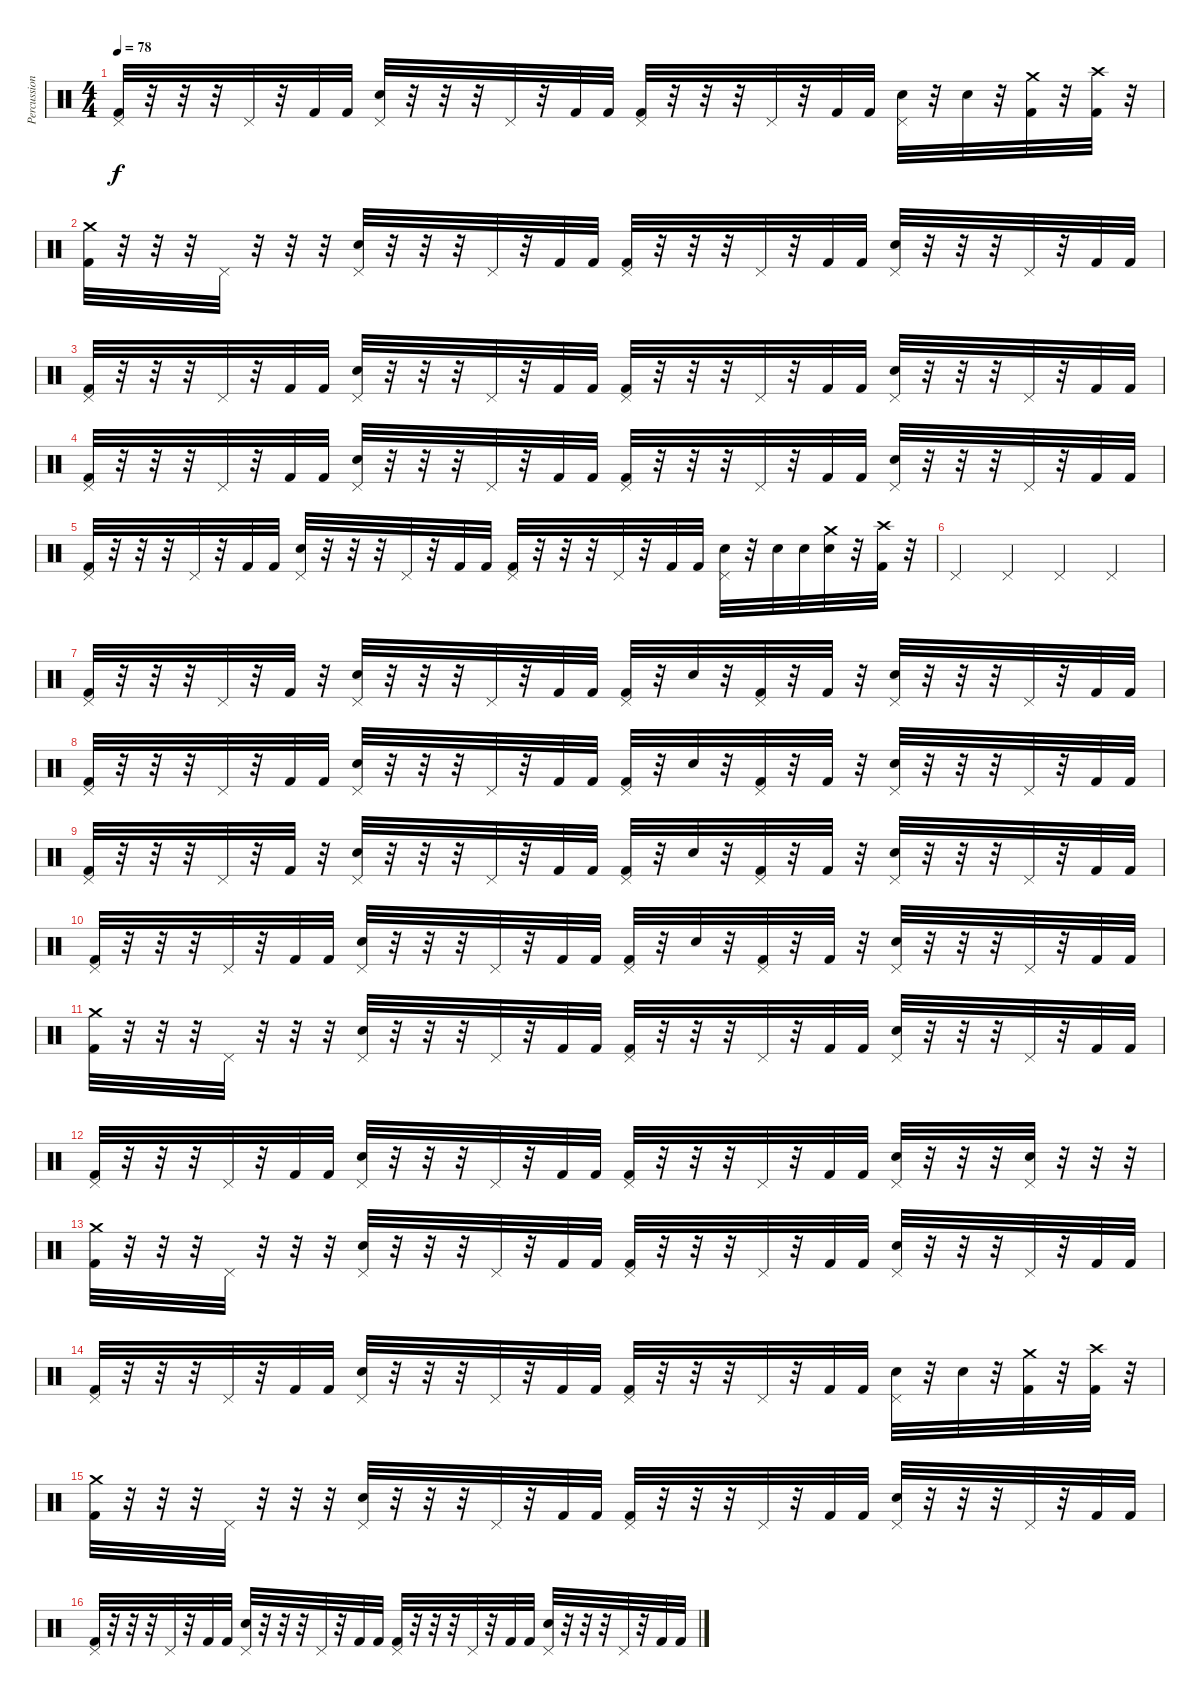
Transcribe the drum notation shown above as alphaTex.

\track ("Percussion" "Percussion") {instrument percussion}
\staff {score}
\articulation defaults
\ts (4 4)
\tempo 78
\clef neutral
\ks c
("Pedal Hi-Hat (hit)" "Kick (hit) 2").32{dy f} r.32 r.32 r.32 "Pedal Hi-Hat (hit)".32 r.32 "Kick (hit) 2".32 "Kick (hit) 2".32 ("Pedal Hi-Hat (hit)" "Electric Snare (hit)").32 r.32 r.32 r.32 "Pedal Hi-Hat (hit)".32 r.32 "Kick (hit) 2".32 "Kick (hit) 2".32 ("Pedal Hi-Hat (hit)" "Kick (hit) 2").32 r.32 r.32 r.32 "Pedal Hi-Hat (hit)".32 r.32 "Kick (hit) 2".32 "Kick (hit) 2".32 ("Pedal Hi-Hat (hit)" "Electric Snare (hit)").32 r.32 "Electric Snare (hit)".32 r.32 ("Crash medium (hit)" "Kick (hit) 2").32 r.32 ("Crash high (hit)" "Kick (hit) 2").32 r.32 |
("Crash medium (hit)" "Kick (hit) 2").32 r.32 r.32 r.32 "Pedal Hi-Hat (hit)".32 r.32 r.32 r.32 ("Pedal Hi-Hat (hit)" "Electric Snare (hit)").32 r.32 r.32 r.32 "Pedal Hi-Hat (hit)".32 r.32 "Kick (hit) 2".32 "Kick (hit) 2".32 ("Pedal Hi-Hat (hit)" "Kick (hit) 2").32 r.32 r.32 r.32 "Pedal Hi-Hat (hit)".32 r.32 "Kick (hit) 2".32 "Kick (hit) 2".32 ("Pedal Hi-Hat (hit)" "Electric Snare (hit)").32 r.32 r.32 r.32 "Pedal Hi-Hat (hit)".32 r.32 "Kick (hit) 2".32 "Kick (hit) 2".32 |
("Pedal Hi-Hat (hit)" "Kick (hit) 2").32 r.32 r.32 r.32 "Pedal Hi-Hat (hit)".32 r.32 "Kick (hit) 2".32 "Kick (hit) 2".32 ("Pedal Hi-Hat (hit)" "Electric Snare (hit)").32 r.32 r.32 r.32 "Pedal Hi-Hat (hit)".32 r.32 "Kick (hit) 2".32 "Kick (hit) 2".32 ("Pedal Hi-Hat (hit)" "Kick (hit) 2").32 r.32 r.32 r.32 "Pedal Hi-Hat (hit)".32 r.32 "Kick (hit) 2".32 "Kick (hit) 2".32 ("Pedal Hi-Hat (hit)" "Electric Snare (hit)").32 r.32 r.32 r.32 "Pedal Hi-Hat (hit)".32 r.32 "Kick (hit) 2".32 "Kick (hit) 2".32 |
("Pedal Hi-Hat (hit)" "Kick (hit) 2").32 r.32 r.32 r.32 "Pedal Hi-Hat (hit)".32 r.32 "Kick (hit) 2".32 "Kick (hit) 2".32 ("Pedal Hi-Hat (hit)" "Electric Snare (hit)").32 r.32 r.32 r.32 "Pedal Hi-Hat (hit)".32 r.32 "Kick (hit) 2".32 "Kick (hit) 2".32 ("Pedal Hi-Hat (hit)" "Kick (hit) 2").32 r.32 r.32 r.32 "Pedal Hi-Hat (hit)".32 r.32 "Kick (hit) 2".32 "Kick (hit) 2".32 ("Pedal Hi-Hat (hit)" "Electric Snare (hit)").32 r.32 r.32 r.32 "Pedal Hi-Hat (hit)".32 r.32 "Kick (hit) 2".32 "Kick (hit) 2".32 |
("Pedal Hi-Hat (hit)" "Kick (hit) 2").32 r.32 r.32 r.32 "Pedal Hi-Hat (hit)".32 r.32 "Kick (hit) 2".32 "Kick (hit) 2".32 ("Pedal Hi-Hat (hit)" "Electric Snare (hit)").32 r.32 r.32 r.32 "Pedal Hi-Hat (hit)".32 r.32 "Kick (hit) 2".32 "Kick (hit) 2".32 ("Pedal Hi-Hat (hit)" "Kick (hit) 2").32 r.32 r.32 r.32 "Pedal Hi-Hat (hit)".32 r.32 "Kick (hit) 2".32 "Kick (hit) 2".32 ("Pedal Hi-Hat (hit)" "Electric Snare (hit)").32 r.32 "Electric Snare (hit)".32 "Electric Snare (hit)".32 ("Crash medium (hit)" "Electric Snare (hit)").32 r.32 ("Crash high (hit)" "Kick (hit) 2").32 r.32 |
"Pedal Hi-Hat (hit)".4 "Pedal Hi-Hat (hit)".4 "Pedal Hi-Hat (hit)".4 "Pedal Hi-Hat (hit)".4 |
("Pedal Hi-Hat (hit)" "Kick (hit) 2").32 r.32 r.32 r.32 "Pedal Hi-Hat (hit)".32 r.32 "Kick (hit) 2".32 r.32 ("Pedal Hi-Hat (hit)" "Electric Snare (hit)").32 r.32 r.32 r.32 "Pedal Hi-Hat (hit)".32 r.32 "Kick (hit) 2".32 "Kick (hit) 2".32 ("Pedal Hi-Hat (hit)" "Kick (hit) 2").32 r.32 "Electric Snare (hit)".32 r.32 ("Pedal Hi-Hat (hit)" "Kick (hit) 2").32 r.32 "Kick (hit) 2".32 r.32 ("Pedal Hi-Hat (hit)" "Electric Snare (hit)").32 r.32 r.32 r.32 "Pedal Hi-Hat (hit)".32 r.32 "Kick (hit) 2".32 "Kick (hit) 2".32 |
("Pedal Hi-Hat (hit)" "Kick (hit) 2").32 r.32 r.32 r.32 "Pedal Hi-Hat (hit)".32 r.32 "Kick (hit) 2".32 "Kick (hit) 2".32 ("Pedal Hi-Hat (hit)" "Electric Snare (hit)").32 r.32 r.32 r.32 "Pedal Hi-Hat (hit)".32 r.32 "Kick (hit) 2".32 "Kick (hit) 2".32 ("Pedal Hi-Hat (hit)" "Kick (hit) 2").32 r.32 "Electric Snare (hit)".32 r.32 ("Pedal Hi-Hat (hit)" "Kick (hit) 2").32 r.32 "Kick (hit) 2".32 r.32 ("Pedal Hi-Hat (hit)" "Electric Snare (hit)").32 r.32 r.32 r.32 "Pedal Hi-Hat (hit)".32 r.32 "Kick (hit) 2".32 "Kick (hit) 2".32 |
("Pedal Hi-Hat (hit)" "Kick (hit) 2").32 r.32 r.32 r.32 "Pedal Hi-Hat (hit)".32 r.32 "Kick (hit) 2".32 r.32 ("Pedal Hi-Hat (hit)" "Electric Snare (hit)").32 r.32 r.32 r.32 "Pedal Hi-Hat (hit)".32 r.32 "Kick (hit) 2".32 "Kick (hit) 2".32 ("Pedal Hi-Hat (hit)" "Kick (hit) 2").32 r.32 "Electric Snare (hit)".32 r.32 ("Pedal Hi-Hat (hit)" "Kick (hit) 2").32 r.32 "Kick (hit) 2".32 r.32 ("Pedal Hi-Hat (hit)" "Electric Snare (hit)").32 r.32 r.32 r.32 "Pedal Hi-Hat (hit)".32 r.32 "Kick (hit) 2".32 "Kick (hit) 2".32 |
("Pedal Hi-Hat (hit)" "Kick (hit) 2").32 r.32 r.32 r.32 "Pedal Hi-Hat (hit)".32 r.32 "Kick (hit) 2".32 "Kick (hit) 2".32 ("Pedal Hi-Hat (hit)" "Electric Snare (hit)").32 r.32 r.32 r.32 "Pedal Hi-Hat (hit)".32 r.32 "Kick (hit) 2".32 "Kick (hit) 2".32 ("Pedal Hi-Hat (hit)" "Kick (hit) 2").32 r.32 "Electric Snare (hit)".32 r.32 ("Pedal Hi-Hat (hit)" "Kick (hit) 2").32 r.32 "Kick (hit) 2".32 r.32 ("Pedal Hi-Hat (hit)" "Electric Snare (hit)").32 r.32 r.32 r.32 "Pedal Hi-Hat (hit)".32 r.32 "Kick (hit) 2".32 "Kick (hit) 2".32 |
("Crash medium (hit)" "Kick (hit) 2").32 r.32 r.32 r.32 "Pedal Hi-Hat (hit)".32 r.32 r.32 r.32 ("Pedal Hi-Hat (hit)" "Electric Snare (hit)").32 r.32 r.32 r.32 "Pedal Hi-Hat (hit)".32 r.32 "Kick (hit) 2".32 "Kick (hit) 2".32 ("Pedal Hi-Hat (hit)" "Kick (hit) 2").32 r.32 r.32 r.32 "Pedal Hi-Hat (hit)".32 r.32 "Kick (hit) 2".32 "Kick (hit) 2".32 ("Pedal Hi-Hat (hit)" "Electric Snare (hit)").32 r.32 r.32 r.32 "Pedal Hi-Hat (hit)".32 r.32 "Kick (hit) 2".32 "Kick (hit) 2".32 |
("Pedal Hi-Hat (hit)" "Kick (hit) 2").32 r.32 r.32 r.32 "Pedal Hi-Hat (hit)".32 r.32 "Kick (hit) 2".32 "Kick (hit) 2".32 ("Pedal Hi-Hat (hit)" "Electric Snare (hit)").32 r.32 r.32 r.32 "Pedal Hi-Hat (hit)".32 r.32 "Kick (hit) 2".32 "Kick (hit) 2".32 ("Pedal Hi-Hat (hit)" "Kick (hit) 2").32 r.32 r.32 r.32 "Pedal Hi-Hat (hit)".32 r.32 "Kick (hit) 2".32 "Kick (hit) 2".32 ("Pedal Hi-Hat (hit)" "Electric Snare (hit)").32 r.32 r.32 r.32 ("Pedal Hi-Hat (hit)" "Electric Snare (hit)").32 r.32 r.32 r.32 |
("Crash medium (hit)" "Kick (hit) 2").32 r.32 r.32 r.32 "Pedal Hi-Hat (hit)".32 r.32 r.32 r.32 ("Pedal Hi-Hat (hit)" "Electric Snare (hit)").32 r.32 r.32 r.32 "Pedal Hi-Hat (hit)".32 r.32 "Kick (hit) 2".32 "Kick (hit) 2".32 ("Pedal Hi-Hat (hit)" "Kick (hit) 2").32 r.32 r.32 r.32 "Pedal Hi-Hat (hit)".32 r.32 "Kick (hit) 2".32 "Kick (hit) 2".32 ("Pedal Hi-Hat (hit)" "Electric Snare (hit)").32 r.32 r.32 r.32 "Pedal Hi-Hat (hit)".32 r.32 "Kick (hit) 2".32 "Kick (hit) 2".32 |
("Pedal Hi-Hat (hit)" "Kick (hit) 2").32 r.32 r.32 r.32 "Pedal Hi-Hat (hit)".32 r.32 "Kick (hit) 2".32 "Kick (hit) 2".32 ("Pedal Hi-Hat (hit)" "Electric Snare (hit)").32 r.32 r.32 r.32 "Pedal Hi-Hat (hit)".32 r.32 "Kick (hit) 2".32 "Kick (hit) 2".32 ("Pedal Hi-Hat (hit)" "Kick (hit) 2").32 r.32 r.32 r.32 "Pedal Hi-Hat (hit)".32 r.32 "Kick (hit) 2".32 "Kick (hit) 2".32 ("Pedal Hi-Hat (hit)" "Electric Snare (hit)").32 r.32 "Electric Snare (hit)".32 r.32 ("Crash medium (hit)" "Kick (hit) 2").32 r.32 ("Crash high (hit)" "Kick (hit) 2").32 r.32 |
("Crash medium (hit)" "Kick (hit) 2").32 r.32 r.32 r.32 "Pedal Hi-Hat (hit)".32 r.32 r.32 r.32 ("Pedal Hi-Hat (hit)" "Electric Snare (hit)").32 r.32 r.32 r.32 "Pedal Hi-Hat (hit)".32 r.32 "Kick (hit) 2".32 "Kick (hit) 2".32 ("Pedal Hi-Hat (hit)" "Kick (hit) 2").32 r.32 r.32 r.32 "Pedal Hi-Hat (hit)".32 r.32 "Kick (hit) 2".32 "Kick (hit) 2".32 ("Pedal Hi-Hat (hit)" "Electric Snare (hit)").32 r.32 r.32 r.32 "Pedal Hi-Hat (hit)".32 r.32 "Kick (hit) 2".32 "Kick (hit) 2".32 |
("Pedal Hi-Hat (hit)" "Kick (hit) 2").32 r.32 r.32 r.32 "Pedal Hi-Hat (hit)".32 r.32 "Kick (hit) 2".32 "Kick (hit) 2".32 ("Pedal Hi-Hat (hit)" "Electric Snare (hit)").32 r.32 r.32 r.32 "Pedal Hi-Hat (hit)".32 r.32 "Kick (hit) 2".32 "Kick (hit) 2".32 ("Pedal Hi-Hat (hit)" "Kick (hit) 2").32 r.32 r.32 r.32 "Pedal Hi-Hat (hit)".32 r.32 "Kick (hit) 2".32 "Kick (hit) 2".32 ("Pedal Hi-Hat (hit)" "Electric Snare (hit)").32 r.32 r.32 r.32 "Pedal Hi-Hat (hit)".32 r.32 "Kick (hit) 2".32 "Kick (hit) 2".32
